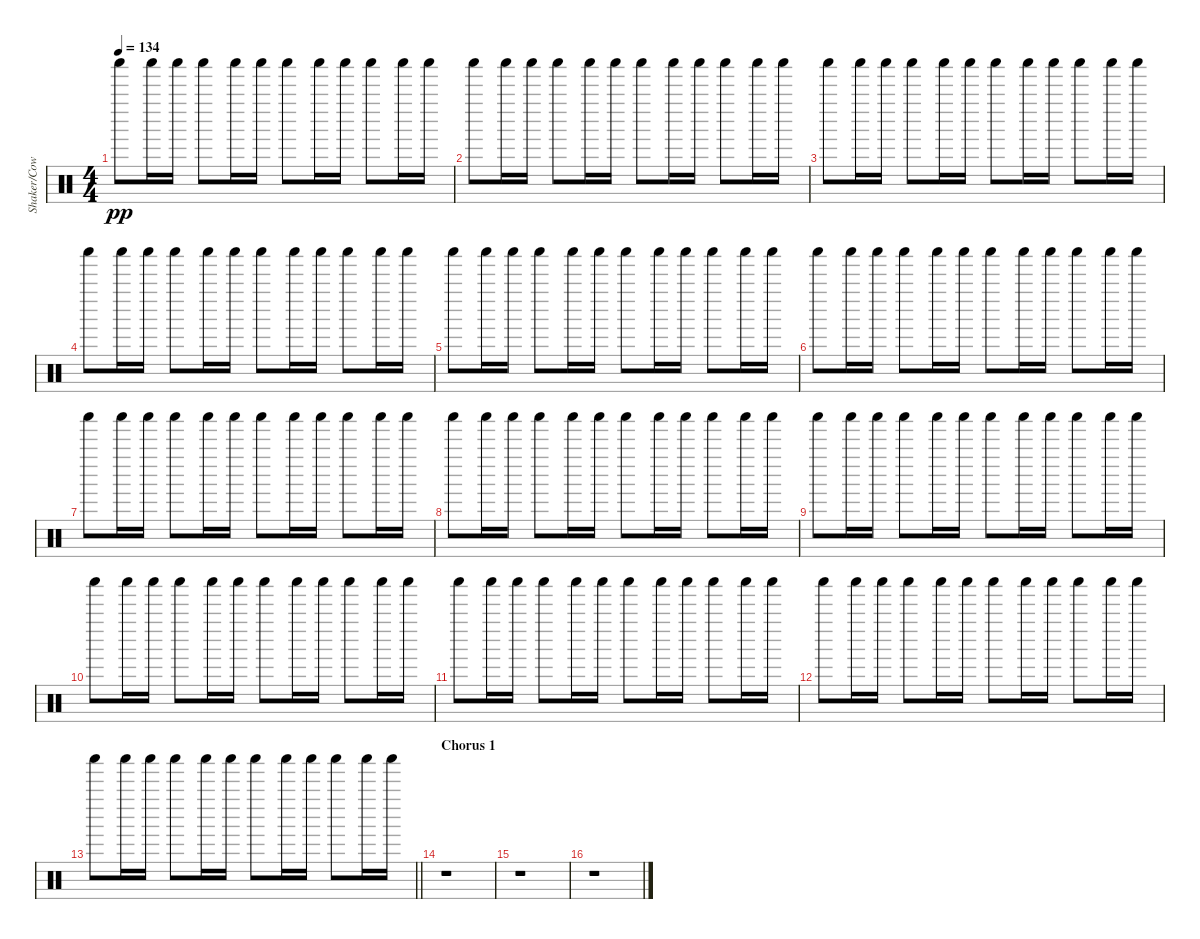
\track ("Shaker/Cowbell" "Shaker/Cow") {instrument percussion}
\staff {score}
\articulation defaults
\ts (4 4)
\tempo 134
\clef neutral
\ks c "Shaker (hit)".8{dy pp} "Shaker (hit)".16 "Shaker (hit)".16 "Shaker (hit)".8 "Shaker (hit)".16 "Shaker (hit)".16 "Shaker (hit)".8 "Shaker (hit)".16 "Shaker (hit)".16 "Shaker (hit)".8 "Shaker (hit)".16 "Shaker (hit)".16
|
"Shaker (hit)".8 "Shaker (hit)".16 "Shaker (hit)".16 "Shaker (hit)".8 "Shaker (hit)".16 "Shaker (hit)".16 "Shaker (hit)".8 "Shaker (hit)".16 "Shaker (hit)".16 "Shaker (hit)".8 "Shaker (hit)".16 "Shaker (hit)".16 |
"Shaker (hit)".8 "Shaker (hit)".16 "Shaker (hit)".16 "Shaker (hit)".8 "Shaker (hit)".16 "Shaker (hit)".16 "Shaker (hit)".8 "Shaker (hit)".16 "Shaker (hit)".16 "Shaker (hit)".8 "Shaker (hit)".16 "Shaker (hit)".16 |
"Shaker (hit)".8 "Shaker (hit)".16 "Shaker (hit)".16 "Shaker (hit)".8 "Shaker (hit)".16 "Shaker (hit)".16 "Shaker (hit)".8 "Shaker (hit)".16 "Shaker (hit)".16 "Shaker (hit)".8 "Shaker (hit)".16 "Shaker (hit)".16 |
"Shaker (hit)".8 "Shaker (hit)".16 "Shaker (hit)".16 "Shaker (hit)".8 "Shaker (hit)".16 "Shaker (hit)".16 "Shaker (hit)".8 "Shaker (hit)".16 "Shaker (hit)".16 "Shaker (hit)".8 "Shaker (hit)".16 "Shaker (hit)".16 |
"Shaker (hit)".8 "Shaker (hit)".16 "Shaker (hit)".16 "Shaker (hit)".8 "Shaker (hit)".16 "Shaker (hit)".16 "Shaker (hit)".8 "Shaker (hit)".16 "Shaker (hit)".16 "Shaker (hit)".8 "Shaker (hit)".16 "Shaker (hit)".16 |
"Shaker (hit)".8 "Shaker (hit)".16 "Shaker (hit)".16 "Shaker (hit)".8 "Shaker (hit)".16 "Shaker (hit)".16 "Shaker (hit)".8 "Shaker (hit)".16 "Shaker (hit)".16 "Shaker (hit)".8 "Shaker (hit)".16 "Shaker (hit)".16 |
"Shaker (hit)".8 "Shaker (hit)".16 "Shaker (hit)".16 "Shaker (hit)".8 "Shaker (hit)".16 "Shaker (hit)".16 "Shaker (hit)".8 "Shaker (hit)".16 "Shaker (hit)".16 "Shaker (hit)".8 "Shaker (hit)".16 "Shaker (hit)".16 |
"Shaker (hit)".8 "Shaker (hit)".16 "Shaker (hit)".16 "Shaker (hit)".8 "Shaker (hit)".16 "Shaker (hit)".16 "Shaker (hit)".8 "Shaker (hit)".16 "Shaker (hit)".16 "Shaker (hit)".8 "Shaker (hit)".16 "Shaker (hit)".16 |
"Shaker (hit)".8 "Shaker (hit)".16 "Shaker (hit)".16 "Shaker (hit)".8 "Shaker (hit)".16 "Shaker (hit)".16 "Shaker (hit)".8 "Shaker (hit)".16 "Shaker (hit)".16 "Shaker (hit)".8 "Shaker (hit)".16 "Shaker (hit)".16 |
"Shaker (hit)".8 "Shaker (hit)".16 "Shaker (hit)".16 "Shaker (hit)".8 "Shaker (hit)".16 "Shaker (hit)".16 "Shaker (hit)".8 "Shaker (hit)".16 "Shaker (hit)".16 "Shaker (hit)".8 "Shaker (hit)".16 "Shaker (hit)".16 |
"Shaker (hit)".8 "Shaker (hit)".16 "Shaker (hit)".16 "Shaker (hit)".8 "Shaker (hit)".16 "Shaker (hit)".16 "Shaker (hit)".8 "Shaker (hit)".16 "Shaker (hit)".16 "Shaker (hit)".8 "Shaker (hit)".16 "Shaker (hit)".16 |
\barLineRight lightlight "Shaker (hit)".8 "Shaker (hit)".16 "Shaker (hit)".16 "Shaker (hit)".8 "Shaker (hit)".16 "Shaker (hit)".16 "Shaker (hit)".8 "Shaker (hit)".16 "Shaker (hit)".16 "Shaker (hit)".8 "Shaker (hit)".16 "Shaker (hit)".16
|
\section ("" "Chorus 1")
r.1 |
r.1 |
r.1
